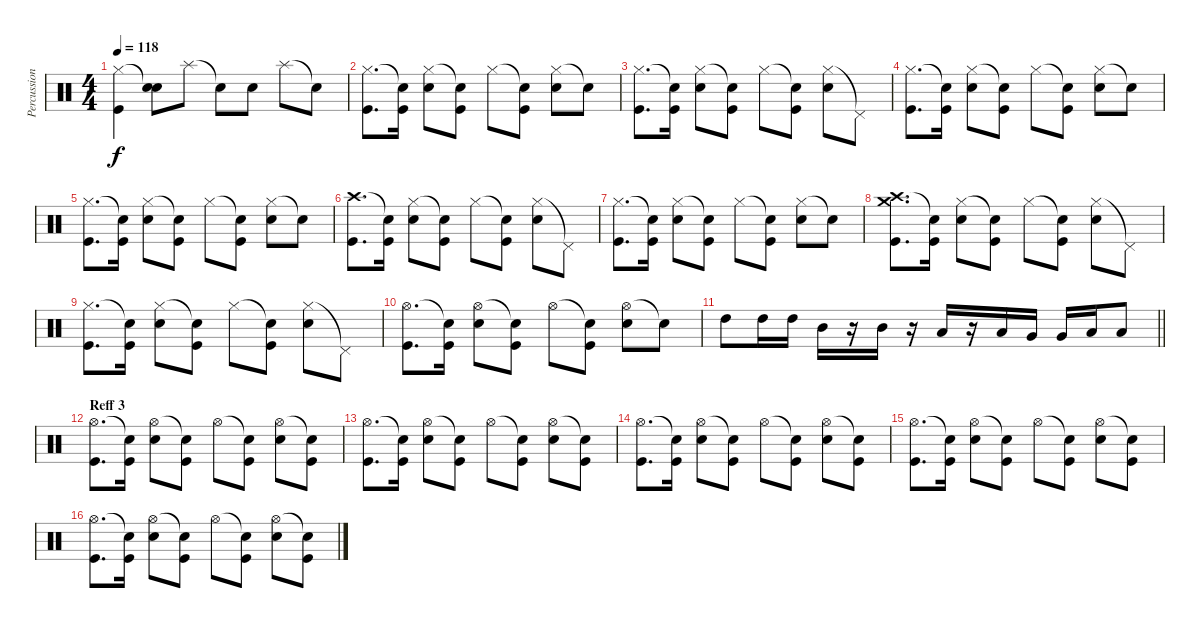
\track ("Percussion 1" "Percussion") {instrument percussion}
\staff {score}
\articulation defaults
\ts (4 4)
\tempo 118
\clef neutral
\ks c
("Hi-Hat (closed)" "Kick (hit)").4{dy f} ("Snare (hit)"{t} "Electric Snare (hit)").8 "Splash (hit)".8 "Snare (hit)"{t}.8 "Electric Snare (hit)".8 "Splash (hit)".8 "Snare (hit)"{t}.8 |
("Hi-Hat (closed)" "Kick (hit)").8{d} ("Snare (hit)"{t} "Kick (hit)").16 ("Hi-Hat (closed)" "Electric Snare (hit)").8 ("Snare (hit)"{t} "Kick (hit)").8 "Hi-Hat (closed)".8 ("Snare (hit)"{t} "Kick (hit)").8 ("Hi-Hat (closed)" "Electric Snare (hit)").8 "Snare (hit)"{t}.8 |
("Hi-Hat (closed)" "Kick (hit)").8{d} ("Snare (hit)"{t} "Kick (hit)").16 ("Hi-Hat (closed)" "Electric Snare (hit)").8 ("Snare (hit)"{t} "Kick (hit)").8 "Hi-Hat (closed)".8 ("Snare (hit)"{t} "Kick (hit)").8 ("Hi-Hat (closed)" "Electric Snare (hit)").8 "Pedal Hi-Hat (hit)"{t}.8 |
("Hi-Hat (closed)" "Kick (hit)").8{d} ("Snare (hit)"{t} "Kick (hit)").16 ("Hi-Hat (closed)" "Electric Snare (hit)").8 ("Snare (hit)"{t} "Kick (hit)").8 "Hi-Hat (closed)".8 ("Snare (hit)"{t} "Kick (hit)").8 ("Hi-Hat (closed)" "Electric Snare (hit)").8 "Snare (hit)"{t}.8 |
("Hi-Hat (closed)" "Kick (hit)").8{d} ("Snare (hit)"{t} "Kick (hit)").16 ("Hi-Hat (closed)" "Electric Snare (hit)").8 ("Snare (hit)"{t} "Kick (hit)").8 "Hi-Hat (closed)".8 ("Snare (hit)"{t} "Kick (hit)").8 ("Hi-Hat (closed)" "Electric Snare (hit)").8 "Snare (hit)"{t}.8 |
("Crash high (hit)" "Kick (hit)").8{d} ("Snare (hit)"{t} "Kick (hit)").16 ("Hi-Hat (closed)" "Electric Snare (hit)").8 ("Snare (hit)"{t} "Kick (hit)").8 "Hi-Hat (closed)".8 ("Snare (hit)"{t} "Kick (hit)").8 ("Hi-Hat (closed)" "Electric Snare (hit)").8 "Pedal Hi-Hat (hit)"{t}.8 |
("Hi-Hat (closed)" "Kick (hit)").8{d} ("Snare (hit)"{t} "Kick (hit)").16 ("Hi-Hat (closed)" "Electric Snare (hit)").8 ("Snare (hit)"{t} "Kick (hit)").8 "Hi-Hat (closed)".8 ("Snare (hit)"{t} "Kick (hit)").8 ("Hi-Hat (closed)" "Electric Snare (hit)").8 "Snare (hit)"{t}.8 |
("Crash high (hit)" "Crash medium (hit)" "Kick (hit)").8{d} ("Snare (hit)"{t} "Kick (hit)").16 ("Hi-Hat (closed)" "Electric Snare (hit)").8 ("Snare (hit)"{t} "Kick (hit)").8 "Hi-Hat (closed)".8 ("Snare (hit)"{t} "Kick (hit)").8 ("Hi-Hat (closed)" "Electric Snare (hit)").8 "Pedal Hi-Hat (hit)"{t}.8 |
("Hi-Hat (closed)" "Kick (hit)").8{d} ("Snare (hit)"{t} "Kick (hit)").16 ("Hi-Hat (closed)" "Electric Snare (hit)").8 ("Snare (hit)"{t} "Kick (hit)").8 "Hi-Hat (closed)".8 ("Snare (hit)"{t} "Kick (hit)").8 ("Hi-Hat (closed)" "Electric Snare (hit)").8 "Pedal Hi-Hat (hit)"{t}.8 |
("Hi-Hat (open)" "Kick (hit)").8{d} ("Snare (hit)"{t} "Kick (hit)").16 ("Hi-Hat (open)" "Electric Snare (hit)").8 ("Snare (hit)"{t} "Kick (hit)").8 "Hi-Hat (open)".8 ("Snare (hit)"{t} "Kick (hit)").8 ("Hi-Hat (open)" "Electric Snare (hit)").8 "Snare (hit)"{t}.8 |
\barLineRight lightlight "High Tom (hit)".8 "High Tom (hit)".16 "High Tom (hit)".16 "Mid Tom (hit)".16
r.16 "Mid Tom (hit)".16 r.16 "Low Tom (hit)".16 r.16 "Low Tom (hit)".16 "Very Low Tom (hit)".16 "Very Low Tom (hit)".16 "Low Floor Tom (hit)".16 "Low Floor Tom (hit)".8 |
\section ("" "Reff 3")
("Hi-Hat (open)" "Kick (hit)").8{d} ("Snare (hit)"{t} "Kick (hit)").16 ("Hi-Hat (open)" "Electric Snare (hit)").8 ("Snare (hit)"{t} "Kick (hit)").8 "Hi-Hat (open)".8 ("Snare (hit)"{t} "Kick (hit)").8 ("Hi-Hat (open)" "Electric Snare (hit)").8 ("Snare (hit)"{t} "Kick (hit)").8 |
("Hi-Hat (open)" "Kick (hit)").8{d} ("Snare (hit)"{t} "Kick (hit)").16 ("Hi-Hat (open)" "Electric Snare (hit)").8 ("Snare (hit)"{t} "Kick (hit)").8 "Hi-Hat (open)".8 ("Snare (hit)"{t} "Kick (hit)").8 ("Hi-Hat (open)" "Electric Snare (hit)").8 ("Snare (hit)"{t} "Kick (hit)").8 |
("Hi-Hat (open)" "Kick (hit)").8{d} ("Snare (hit)"{t} "Kick (hit)").16 ("Hi-Hat (open)" "Electric Snare (hit)").8 ("Snare (hit)"{t} "Kick (hit)").8 "Hi-Hat (open)".8 ("Snare (hit)"{t} "Kick (hit)").8 ("Hi-Hat (open)" "Electric Snare (hit)").8 ("Snare (hit)"{t} "Kick (hit)").8 |
("Hi-Hat (open)" "Kick (hit)").8{d} ("Snare (hit)"{t} "Kick (hit)").16 ("Hi-Hat (open)" "Electric Snare (hit)").8 ("Snare (hit)"{t} "Kick (hit)").8 "Hi-Hat (open)".8 ("Snare (hit)"{t} "Kick (hit)").8 ("Hi-Hat (open)" "Electric Snare (hit)").8 ("Snare (hit)"{t} "Kick (hit)").8 |
("Hi-Hat (open)" "Kick (hit)").8{d} ("Snare (hit)"{t} "Kick (hit)").16 ("Hi-Hat (open)" "Electric Snare (hit)").8 ("Snare (hit)"{t} "Kick (hit)").8 "Hi-Hat (open)".8 ("Snare (hit)"{t} "Kick (hit)").8 ("Hi-Hat (open)" "Electric Snare (hit)").8 ("Snare (hit)"{t} "Kick (hit)").8
